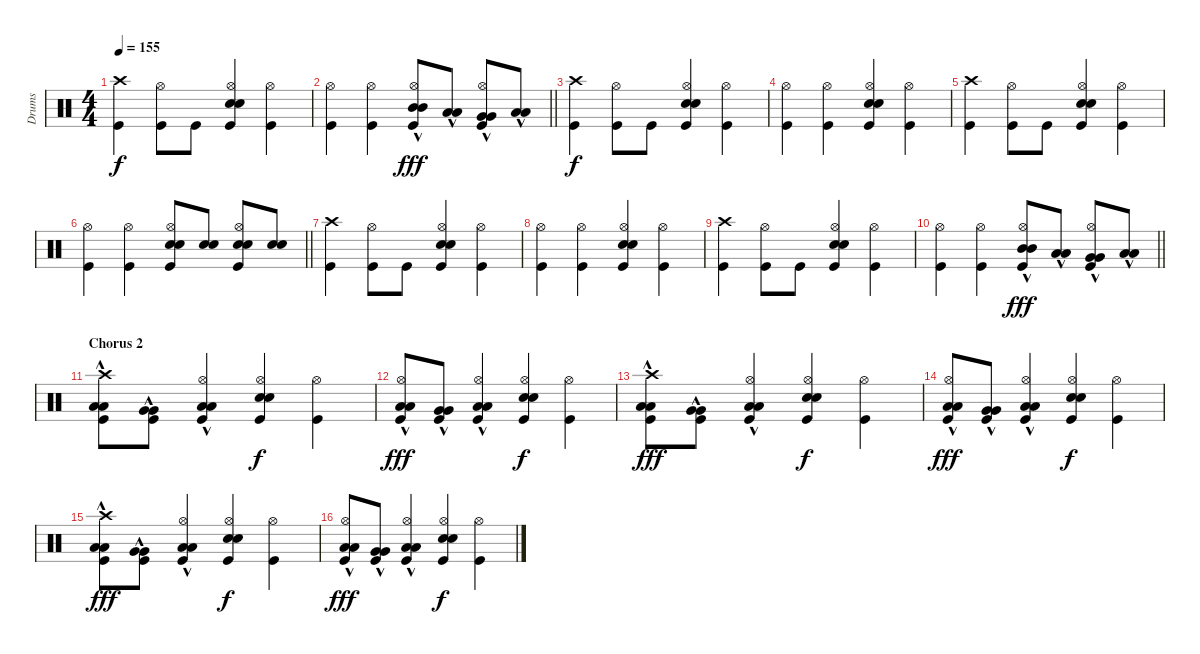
\track ("Drums" "Drums") {instrument percussion}
\staff {score}
\articulation defaults
\ts (4 4)
\tempo 155
\clef neutral
\ks c
("Crash high (hit)" "Kick (hit)").4{dy f} ("Hi-Hat (open)" "Kick (hit)").8 "Kick (hit)".8 ("Hi-Hat (open)" "Snare (hit) 2" "Electric Snare (hit)" "Kick (hit)").4 ("Hi-Hat (open)" "Kick (hit)").4 |
\barLineRight lightlight
("Hi-Hat (open)" "Kick (hit)").4 ("Hi-Hat (open)" "Kick (hit)").4 ("Hi-Hat (open)" "Mid Tom (hit)"{hac} "Mid Tom (hit)"{hac} "Kick (hit)").8{dy fff} ("Low Tom (hit)"{hac} "Low Tom (hit)"{hac}).8 ("Hi-Hat (open)" "Very Low Tom (hit)"{hac} "Very Low Tom (hit)"{hac} "Kick (hit)").8 ("Low Floor Tom (hit)"{hac} "Low Floor Tom (hit)"{hac}).8 |
("Crash high (hit)" "Kick (hit)").4{dy f} ("Hi-Hat (open)" "Kick (hit)").8 "Kick (hit)".8 ("Hi-Hat (open)" "Snare (hit) 2" "Electric Snare (hit)" "Kick (hit)").4 ("Hi-Hat (open)" "Kick (hit)").4 |
("Hi-Hat (open)" "Kick (hit)").4 ("Hi-Hat (open)" "Kick (hit)").4 ("Hi-Hat (open)" "Snare (hit) 2" "Electric Snare (hit)" "Kick (hit)").4 ("Hi-Hat (open)" "Kick (hit)").4 |
("Crash high (hit)" "Kick (hit)").4 ("Hi-Hat (open)" "Kick (hit)").8 "Kick (hit)".8 ("Hi-Hat (open)" "Snare (hit) 2" "Electric Snare (hit)" "Kick (hit)").4 ("Hi-Hat (open)" "Kick (hit)").4 |
\barLineRight lightlight
("Hi-Hat (open)" "Kick (hit)").4 ("Hi-Hat (open)" "Kick (hit)").4 ("Hi-Hat (open)" "Snare (hit) 2" "Electric Snare (hit)" "Kick (hit)").8 ("Snare (hit) 2" "Electric Snare (hit)").8 ("Hi-Hat (open)" "Snare (hit) 2" "Electric Snare (hit)" "Kick (hit)").8 ("Snare (hit) 2" "Electric Snare (hit)").8 |
("Crash high (hit)" "Kick (hit)").4 ("Hi-Hat (open)" "Kick (hit)").8 "Kick (hit)".8 ("Hi-Hat (open)" "Snare (hit) 2" "Electric Snare (hit)" "Kick (hit)").4 ("Hi-Hat (open)" "Kick (hit)").4 |
("Hi-Hat (open)" "Kick (hit)").4 ("Hi-Hat (open)" "Kick (hit)").4 ("Hi-Hat (open)" "Snare (hit) 2" "Electric Snare (hit)" "Kick (hit)").4 ("Hi-Hat (open)" "Kick (hit)").4 |
("Crash high (hit)" "Kick (hit)").4 ("Hi-Hat (open)" "Kick (hit)").8 "Kick (hit)".8 ("Hi-Hat (open)" "Snare (hit) 2" "Electric Snare (hit)" "Kick (hit)").4 ("Hi-Hat (open)" "Kick (hit)").4 |
\barLineRight lightlight
("Hi-Hat (open)" "Kick (hit)").4 ("Hi-Hat (open)" "Kick (hit)").4 ("Hi-Hat (open)" "Mid Tom (hit)"{hac} "Mid Tom (hit)"{hac} "Kick (hit)").8{dy fff} ("Low Tom (hit)"{hac} "Low Tom (hit)"{hac}).8 ("Hi-Hat (open)" "Very Low Tom (hit)"{hac} "Very Low Tom (hit)"{hac} "Kick (hit)").8 ("Low Floor Tom (hit)"{hac} "Low Floor Tom (hit)"{hac}).8 |
\section ("" "Chorus 2")
("Crash high (hit)" "Low Tom (hit)"{hac} "Low Tom (hit)"{hac} "Kick (hit)").8 ("Very Low Tom (hit)"{hac} "Very Low Tom (hit)"{hac} "Kick (hit)").8 ("Hi-Hat (open)" "Low Floor Tom (hit)"{hac} "Low Floor Tom (hit)"{hac} "Kick (hit)").4 ("Hi-Hat (open)" "Snare (hit) 2" "Electric Snare (hit)" "Kick (hit)").4{dy f} ("Hi-Hat (open)" "Kick (hit)").4 |
("Hi-Hat (open)" "Low Tom (hit)"{hac} "Low Tom (hit)"{hac} "Kick (hit)").8{dy fff} ("Very Low Tom (hit)"{hac} "Very Low Tom (hit)"{hac} "Kick (hit)").8 ("Hi-Hat (open)" "Low Floor Tom (hit)"{hac} "Low Floor Tom (hit)"{hac} "Kick (hit)").4 ("Hi-Hat (open)" "Snare (hit) 2" "Electric Snare (hit)" "Kick (hit)").4{dy f} ("Hi-Hat (open)" "Kick (hit)").4 |
("Crash high (hit)" "Low Tom (hit)"{hac} "Low Tom (hit)"{hac} "Kick (hit)").8{dy fff} ("Very Low Tom (hit)"{hac} "Very Low Tom (hit)"{hac} "Kick (hit)").8 ("Hi-Hat (open)" "Low Floor Tom (hit)"{hac} "Low Floor Tom (hit)"{hac} "Kick (hit)").4 ("Hi-Hat (open)" "Snare (hit) 2" "Electric Snare (hit)" "Kick (hit)").4{dy f} ("Hi-Hat (open)" "Kick (hit)").4 |
("Hi-Hat (open)" "Low Tom (hit)"{hac} "Low Tom (hit)"{hac} "Kick (hit)").8{dy fff} ("Very Low Tom (hit)"{hac} "Very Low Tom (hit)"{hac} "Kick (hit)").8 ("Hi-Hat (open)" "Low Floor Tom (hit)"{hac} "Low Floor Tom (hit)"{hac} "Kick (hit)").4 ("Hi-Hat (open)" "Snare (hit) 2" "Electric Snare (hit)" "Kick (hit)").4{dy f} ("Hi-Hat (open)" "Kick (hit)").4 |
("Crash high (hit)" "Low Tom (hit)"{hac} "Low Tom (hit)"{hac} "Kick (hit)").8{dy fff} ("Very Low Tom (hit)"{hac} "Very Low Tom (hit)"{hac} "Kick (hit)").8 ("Hi-Hat (open)" "Low Floor Tom (hit)"{hac} "Low Floor Tom (hit)"{hac} "Kick (hit)").4 ("Hi-Hat (open)" "Snare (hit) 2" "Electric Snare (hit)" "Kick (hit)").4{dy f} ("Hi-Hat (open)" "Kick (hit)").4 |
("Hi-Hat (open)" "Low Tom (hit)"{hac} "Low Tom (hit)"{hac} "Kick (hit)").8{dy fff} ("Very Low Tom (hit)"{hac} "Very Low Tom (hit)"{hac} "Kick (hit)").8 ("Hi-Hat (open)" "Low Floor Tom (hit)"{hac} "Low Floor Tom (hit)"{hac} "Kick (hit)").4 ("Hi-Hat (open)" "Snare (hit) 2" "Electric Snare (hit)" "Kick (hit)").4{dy f} ("Hi-Hat (open)" "Kick (hit)").4
